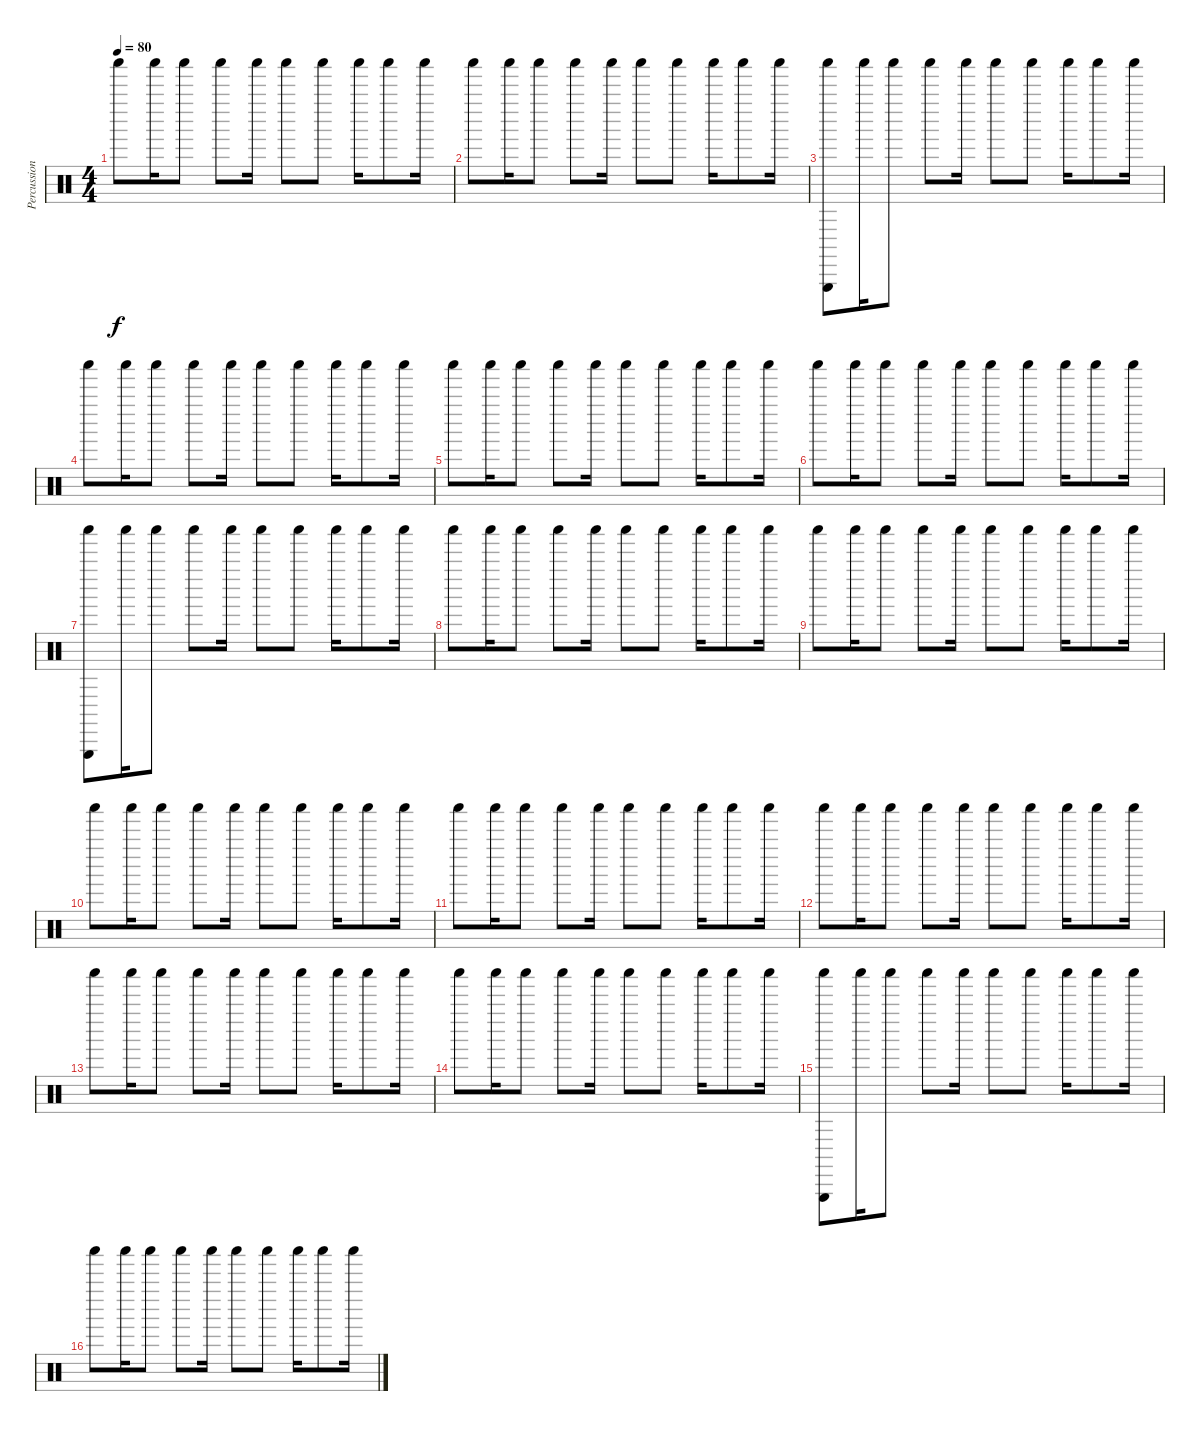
\track ("Percussion" "Percussion") {instrument percussion}
\staff {score}
\articulation defaults
\ts (4 4)
\tempo 80
\clef neutral
\ks c "Shaker (hit)".8{dy f} "Shaker (hit)".16 "Shaker (hit)".8 "Shaker (hit)".8 "Shaker (hit)".16 "Shaker (hit)".8 "Shaker (hit)".8 "Shaker (hit)".16 "Shaker (hit)".8 "Shaker (hit)".16
|
"Shaker (hit)".8 "Shaker (hit)".16 "Shaker (hit)".8 "Shaker (hit)".8 "Shaker (hit)".16 "Shaker (hit)".8 "Shaker (hit)".8 "Shaker (hit)".16 "Shaker (hit)".8 "Shaker (hit)".16 |
("Shaker (hit)" "Triangle (hit)").8 "Shaker (hit)".16 "Shaker (hit)".8 "Shaker (hit)".8 "Shaker (hit)".16 "Shaker (hit)".8 "Shaker (hit)".8 "Shaker (hit)".16 "Shaker (hit)".8 "Shaker (hit)".16 |
"Shaker (hit)".8 "Shaker (hit)".16 "Shaker (hit)".8 "Shaker (hit)".8 "Shaker (hit)".16 "Shaker (hit)".8 "Shaker (hit)".8 "Shaker (hit)".16 "Shaker (hit)".8 "Shaker (hit)".16 |
"Shaker (hit)".8 "Shaker (hit)".16 "Shaker (hit)".8 "Shaker (hit)".8 "Shaker (hit)".16 "Shaker (hit)".8 "Shaker (hit)".8 "Shaker (hit)".16 "Shaker (hit)".8 "Shaker (hit)".16 |
"Shaker (hit)".8 "Shaker (hit)".16 "Shaker (hit)".8 "Shaker (hit)".8 "Shaker (hit)".16 "Shaker (hit)".8 "Shaker (hit)".8 "Shaker (hit)".16 "Shaker (hit)".8 "Shaker (hit)".16 |
("Shaker (hit)" "Triangle (hit)").8 "Shaker (hit)".16 "Shaker (hit)".8 "Shaker (hit)".8 "Shaker (hit)".16 "Shaker (hit)".8 "Shaker (hit)".8 "Shaker (hit)".16 "Shaker (hit)".8 "Shaker (hit)".16 |
"Shaker (hit)".8 "Shaker (hit)".16 "Shaker (hit)".8 "Shaker (hit)".8 "Shaker (hit)".16 "Shaker (hit)".8 "Shaker (hit)".8 "Shaker (hit)".16 "Shaker (hit)".8 "Shaker (hit)".16 |
"Shaker (hit)".8 "Shaker (hit)".16 "Shaker (hit)".8 "Shaker (hit)".8 "Shaker (hit)".16 "Shaker (hit)".8 "Shaker (hit)".8 "Shaker (hit)".16 "Shaker (hit)".8 "Shaker (hit)".16 |
"Shaker (hit)".8 "Shaker (hit)".16 "Shaker (hit)".8 "Shaker (hit)".8 "Shaker (hit)".16 "Shaker (hit)".8 "Shaker (hit)".8 "Shaker (hit)".16 "Shaker (hit)".8 "Shaker (hit)".16 |
"Shaker (hit)".8 "Shaker (hit)".16 "Shaker (hit)".8 "Shaker (hit)".8 "Shaker (hit)".16 "Shaker (hit)".8 "Shaker (hit)".8 "Shaker (hit)".16 "Shaker (hit)".8 "Shaker (hit)".16 |
"Shaker (hit)".8 "Shaker (hit)".16 "Shaker (hit)".8 "Shaker (hit)".8 "Shaker (hit)".16 "Shaker (hit)".8 "Shaker (hit)".8 "Shaker (hit)".16 "Shaker (hit)".8 "Shaker (hit)".16 |
"Shaker (hit)".8 "Shaker (hit)".16 "Shaker (hit)".8 "Shaker (hit)".8 "Shaker (hit)".16 "Shaker (hit)".8 "Shaker (hit)".8 "Shaker (hit)".16 "Shaker (hit)".8 "Shaker (hit)".16 |
"Shaker (hit)".8 "Shaker (hit)".16 "Shaker (hit)".8 "Shaker (hit)".8 "Shaker (hit)".16 "Shaker (hit)".8 "Shaker (hit)".8 "Shaker (hit)".16 "Shaker (hit)".8 "Shaker (hit)".16 |
("Shaker (hit)" "Triangle (hit)").8 "Shaker (hit)".16 "Shaker (hit)".8 "Shaker (hit)".8 "Shaker (hit)".16 "Shaker (hit)".8 "Shaker (hit)".8 "Shaker (hit)".16 "Shaker (hit)".8 "Shaker (hit)".16 |
"Shaker (hit)".8 "Shaker (hit)".16 "Shaker (hit)".8 "Shaker (hit)".8 "Shaker (hit)".16 "Shaker (hit)".8 "Shaker (hit)".8 "Shaker (hit)".16 "Shaker (hit)".8 "Shaker (hit)".16
